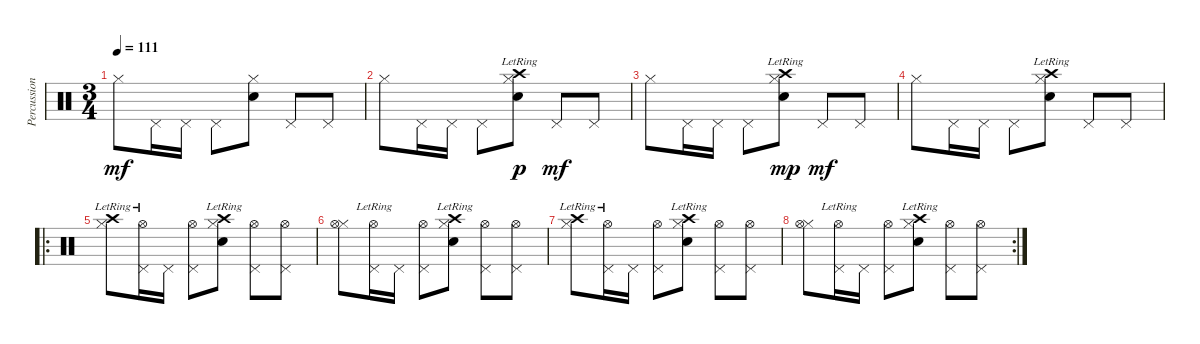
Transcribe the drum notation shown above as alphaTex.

\track ("Percussions" "Percussion") {instrument percussion}
\staff {score}
\articulation defaults
\ts (3 4)
\tempo 111
\clef neutral
\ks c "Hi-Hat (closed)".8{dy mf} "Pedal Hi-Hat (hit)".16 "Pedal Hi-Hat (hit)".16 "Pedal Hi-Hat (hit)".8
("Electric Snare (hit)" "Hi-Hat (closed)").8 "Pedal Hi-Hat (hit)".8 "Pedal Hi-Hat (hit)".8 |
"Hi-Hat (closed)".8 "Pedal Hi-Hat (hit)".16 "Pedal Hi-Hat (hit)".16 "Pedal Hi-Hat (hit)".8 ("Electric Snare (hit)" "Hi-Hat (closed)" "Crash high (hit)"{lr}).8{dy p} "Pedal Hi-Hat (hit)".8{dy mf} "Pedal Hi-Hat (hit)".8 |
"Hi-Hat (closed)".8 "Pedal Hi-Hat (hit)".16 "Pedal Hi-Hat (hit)".16 "Pedal Hi-Hat (hit)".8 ("Electric Snare (hit)" "Hi-Hat (closed)" "Crash high (hit)"{lr}).8{dy mp} "Pedal Hi-Hat (hit)".8{dy mf} "Pedal Hi-Hat (hit)".8 |
"Hi-Hat (closed)".8 "Pedal Hi-Hat (hit)".16 "Pedal Hi-Hat (hit)".16 "Pedal Hi-Hat (hit)".8 ("Electric Snare (hit)" "Hi-Hat (closed)" "Crash high (hit)"{lr}).8 "Pedal Hi-Hat (hit)".8 "Pedal Hi-Hat (hit)".8 |
\ro
("Hi-Hat (closed)" "Crash high (hit)"{lr}).8 ("Pedal Hi-Hat (hit)" "Hi-Hat (open)"{lr}).16 "Pedal Hi-Hat (hit)".16 ("Pedal Hi-Hat (hit)" "Hi-Hat (open)").8 ("Electric Snare (hit)" "Hi-Hat (closed)" "Crash high (hit)"{lr}).8 ("Pedal Hi-Hat (hit)" "Hi-Hat (open)").8 ("Pedal Hi-Hat (hit)" "Hi-Hat (open)").8 |
("Hi-Hat (closed)" "Hi-Hat (open)").8 ("Pedal Hi-Hat (hit)" "Hi-Hat (open)"{lr}).16 "Pedal Hi-Hat (hit)".16 ("Pedal Hi-Hat (hit)" "Hi-Hat (open)").8 ("Electric Snare (hit)" "Hi-Hat (closed)" "Crash high (hit)"{lr}).8 ("Pedal Hi-Hat (hit)" "Hi-Hat (open)").8 ("Pedal Hi-Hat (hit)" "Hi-Hat (open)").8 |
("Hi-Hat (closed)" "Crash high (hit)"{lr}).8 ("Pedal Hi-Hat (hit)" "Hi-Hat (open)"{lr}).16 "Pedal Hi-Hat (hit)".16 ("Pedal Hi-Hat (hit)" "Hi-Hat (open)").8 ("Electric Snare (hit)" "Hi-Hat (closed)" "Crash high (hit)"{lr}).8 ("Pedal Hi-Hat (hit)" "Hi-Hat (open)").8 ("Pedal Hi-Hat (hit)" "Hi-Hat (open)").8 |
\rc 2
("Hi-Hat (closed)" "Hi-Hat (open)").8 ("Pedal Hi-Hat (hit)" "Hi-Hat (open)"{lr}).16 "Pedal Hi-Hat (hit)".16 ("Pedal Hi-Hat (hit)" "Hi-Hat (open)").8 ("Electric Snare (hit)" "Hi-Hat (closed)" "Crash high (hit)"{lr}).8 ("Pedal Hi-Hat (hit)" "Hi-Hat (open)").8 ("Pedal Hi-Hat (hit)" "Hi-Hat (open)").8
